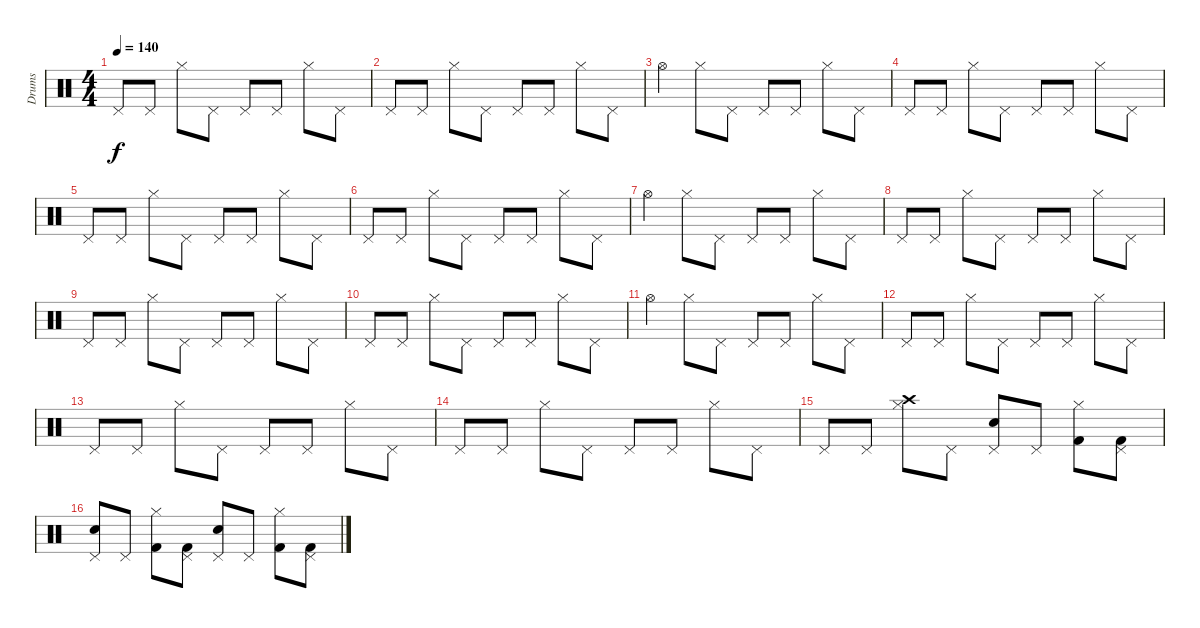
\track ("Drums" "Drums") {instrument percussion}
\staff {score}
\articulation defaults
\ts (4 4)
\tempo 140
\clef neutral
\ks c "Pedal Hi-Hat (hit)".8{dy f} "Pedal Hi-Hat (hit)".8 "Hi-Hat (closed)".8 "Pedal Hi-Hat (hit)".8 "Pedal Hi-Hat (hit)".8 "Pedal Hi-Hat (hit)".8 "Hi-Hat (closed)".8 "Pedal Hi-Hat (hit)".8
|
"Pedal Hi-Hat (hit)".8 "Pedal Hi-Hat (hit)".8 "Hi-Hat (closed)".8 "Pedal Hi-Hat (hit)".8 "Pedal Hi-Hat (hit)".8 "Pedal Hi-Hat (hit)".8 "Hi-Hat (closed)".8 "Pedal Hi-Hat (hit)".8 |
"Hi-Hat (open)".4 "Hi-Hat (closed)".8 "Pedal Hi-Hat (hit)".8 "Pedal Hi-Hat (hit)".8 "Pedal Hi-Hat (hit)".8 "Hi-Hat (closed)".8 "Pedal Hi-Hat (hit)".8 |
"Pedal Hi-Hat (hit)".8 "Pedal Hi-Hat (hit)".8 "Hi-Hat (closed)".8 "Pedal Hi-Hat (hit)".8 "Pedal Hi-Hat (hit)".8 "Pedal Hi-Hat (hit)".8 "Hi-Hat (closed)".8 "Pedal Hi-Hat (hit)".8 |
"Pedal Hi-Hat (hit)".8 "Pedal Hi-Hat (hit)".8 "Hi-Hat (closed)".8 "Pedal Hi-Hat (hit)".8 "Pedal Hi-Hat (hit)".8 "Pedal Hi-Hat (hit)".8 "Hi-Hat (closed)".8 "Pedal Hi-Hat (hit)".8 |
"Pedal Hi-Hat (hit)".8 "Pedal Hi-Hat (hit)".8 "Hi-Hat (closed)".8 "Pedal Hi-Hat (hit)".8 "Pedal Hi-Hat (hit)".8 "Pedal Hi-Hat (hit)".8 "Hi-Hat (closed)".8 "Pedal Hi-Hat (hit)".8 |
"Hi-Hat (open)".4 "Hi-Hat (closed)".8 "Pedal Hi-Hat (hit)".8 "Pedal Hi-Hat (hit)".8 "Pedal Hi-Hat (hit)".8 "Hi-Hat (closed)".8 "Pedal Hi-Hat (hit)".8 |
"Pedal Hi-Hat (hit)".8 "Pedal Hi-Hat (hit)".8 "Hi-Hat (closed)".8 "Pedal Hi-Hat (hit)".8 "Pedal Hi-Hat (hit)".8 "Pedal Hi-Hat (hit)".8 "Hi-Hat (closed)".8 "Pedal Hi-Hat (hit)".8 |
"Pedal Hi-Hat (hit)".8 "Pedal Hi-Hat (hit)".8 "Hi-Hat (closed)".8 "Pedal Hi-Hat (hit)".8 "Pedal Hi-Hat (hit)".8 "Pedal Hi-Hat (hit)".8 "Hi-Hat (closed)".8 "Pedal Hi-Hat (hit)".8 |
"Pedal Hi-Hat (hit)".8 "Pedal Hi-Hat (hit)".8 "Hi-Hat (closed)".8 "Pedal Hi-Hat (hit)".8 "Pedal Hi-Hat (hit)".8 "Pedal Hi-Hat (hit)".8 "Hi-Hat (closed)".8 "Pedal Hi-Hat (hit)".8 |
"Hi-Hat (open)".4 "Hi-Hat (closed)".8 "Pedal Hi-Hat (hit)".8 "Pedal Hi-Hat (hit)".8 "Pedal Hi-Hat (hit)".8 "Hi-Hat (closed)".8 "Pedal Hi-Hat (hit)".8 |
"Pedal Hi-Hat (hit)".8 "Pedal Hi-Hat (hit)".8 "Hi-Hat (closed)".8 "Pedal Hi-Hat (hit)".8 "Pedal Hi-Hat (hit)".8 "Pedal Hi-Hat (hit)".8 "Hi-Hat (closed)".8 "Pedal Hi-Hat (hit)".8 |
"Pedal Hi-Hat (hit)".8 "Pedal Hi-Hat (hit)".8 "Hi-Hat (closed)".8 "Pedal Hi-Hat (hit)".8 "Pedal Hi-Hat (hit)".8 "Pedal Hi-Hat (hit)".8 "Hi-Hat (closed)".8 "Pedal Hi-Hat (hit)".8 |
"Pedal Hi-Hat (hit)".8 "Pedal Hi-Hat (hit)".8 "Hi-Hat (closed)".8 "Pedal Hi-Hat (hit)".8 "Pedal Hi-Hat (hit)".8 "Pedal Hi-Hat (hit)".8 "Hi-Hat (closed)".8 "Pedal Hi-Hat (hit)".8 |
"Pedal Hi-Hat (hit)".8 "Pedal Hi-Hat (hit)".8 ("Crash high (hit)" "Hi-Hat (closed)").8 "Pedal Hi-Hat (hit)".8 ("Electric Snare (hit)" "Pedal Hi-Hat (hit)").8 "Pedal Hi-Hat (hit)".8 ("Kick (hit) 2" "Hi-Hat (closed)").8 ("Kick (hit) 2" "Pedal Hi-Hat (hit)").8 |
("Electric Snare (hit)" "Pedal Hi-Hat (hit)").8 "Pedal Hi-Hat (hit)".8 ("Kick (hit) 2" "Hi-Hat (closed)").8 ("Kick (hit) 2" "Pedal Hi-Hat (hit)").8 ("Electric Snare (hit)" "Pedal Hi-Hat (hit)").8 "Pedal Hi-Hat (hit)".8 ("Kick (hit) 2" "Hi-Hat (closed)").8 ("Kick (hit) 2" "Pedal Hi-Hat (hit)").8
